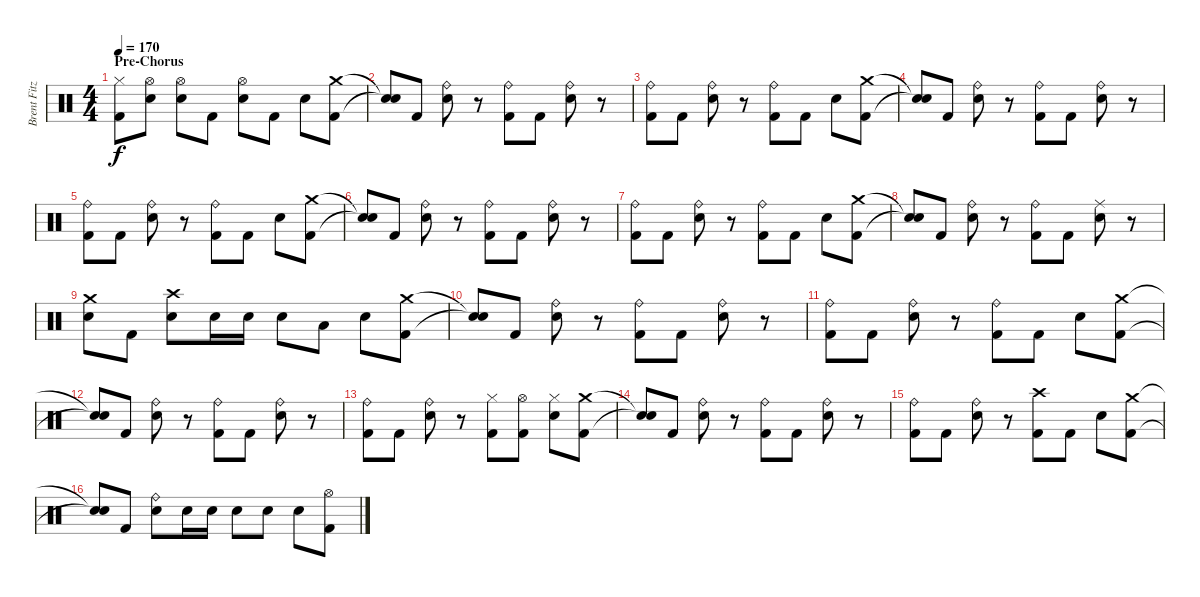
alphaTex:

\track ("Brent Fitz" "Brent Fitz") {instrument percussion}
\staff {score}
\articulation defaults
\ts (4 4)
\section ("" "Pre-Chorus")
\tempo 170
\clef neutral
\ks c
("Hi-Hat (closed)" "Kick (hit) 2").8{dy f} ("Hi-Hat (open)" "Electric Snare (hit)").8 ("Hi-Hat (open)" "Electric Snare (hit)").8 "Kick (hit) 2".8 ("Hi-Hat (open)" "Electric Snare (hit)").8 "Kick (hit) 2".8 "Electric Snare (hit)".8 ("Crash medium (hit)" "Kick (hit) 2").8 |
("Snare (hit)"{t} "Snare (hit)"{t}).8 "Kick (hit) 2".8 ("Ride (bell)" "Electric Snare (hit)").8 r.8 ("Ride (bell)" "Kick (hit) 2").8 "Kick (hit) 2".8 ("Ride (bell)" "Electric Snare (hit)").8 r.8 |
("Ride (bell)" "Kick (hit) 2").8 "Kick (hit) 2".8 ("Ride (bell)" "Electric Snare (hit)").8 r.8 ("Ride (bell)" "Kick (hit) 2").8 "Kick (hit) 2".8 "Electric Snare (hit)".8 ("Crash medium (hit)" "Kick (hit) 2").8 |
("Snare (hit)"{t} "Snare (hit)"{t}).8 "Kick (hit) 2".8 ("Ride (bell)" "Electric Snare (hit)").8 r.8 ("Ride (bell)" "Kick (hit) 2").8 "Kick (hit) 2".8 ("Ride (bell)" "Electric Snare (hit)").8 r.8 |
("Ride (bell)" "Kick (hit) 2").8 "Kick (hit) 2".8 ("Ride (bell)" "Electric Snare (hit)").8 r.8 ("Ride (bell)" "Kick (hit) 2").8 "Kick (hit) 2".8 "Electric Snare (hit)".8 ("Crash medium (hit)" "Kick (hit) 2").8 |
("Snare (hit)"{t} "Snare (hit)"{t}).8 "Kick (hit) 2".8 ("Ride (bell)" "Electric Snare (hit)").8 r.8 ("Ride (bell)" "Kick (hit) 2").8 "Kick (hit) 2".8 ("Ride (bell)" "Electric Snare (hit)").8 r.8 |
("Ride (bell)" "Kick (hit) 2").8 "Kick (hit) 2".8 ("Ride (bell)" "Electric Snare (hit)").8 r.8 ("Ride (bell)" "Kick (hit) 2").8 "Kick (hit) 2".8 "Electric Snare (hit)".8 ("Crash medium (hit)" "Kick (hit) 2").8 |
("Snare (hit)"{t} "Snare (hit)"{t}).8 "Kick (hit) 2".8 ("Ride (bell)" "Electric Snare (hit)").8 r.8 ("Ride (bell)" "Kick (hit) 2").8 "Kick (hit) 2".8 ("Ride (middle)" "Electric Snare (hit)").8 r.8 |
("Crash medium (hit)" "Electric Snare (hit)").8 "Kick (hit) 2".8 ("Crash high (hit)" "Electric Snare (hit)").8 "Electric Snare (hit)".16 "Electric Snare (hit)".16 "Electric Snare (hit)".8 "Low Tom (hit)".8 "Electric Snare (hit)".8 ("Crash medium (hit)" "Kick (hit) 2").8 |
("Snare (hit)"{t} "Snare (hit)"{t}).8 "Kick (hit) 2".8 ("Ride (bell)" "Electric Snare (hit)").8 r.8 ("Ride (bell)" "Kick (hit) 2").8 "Kick (hit) 2".8 ("Ride (bell)" "Electric Snare (hit)").8 r.8 |
("Ride (bell)" "Kick (hit) 2").8 "Kick (hit) 2".8 ("Ride (bell)" "Electric Snare (hit)").8 r.8 ("Ride (bell)" "Kick (hit) 2").8 "Kick (hit) 2".8 "Electric Snare (hit)".8 ("Crash medium (hit)" "Kick (hit) 2").8 |
("Snare (hit)"{t} "Snare (hit)"{t}).8 "Kick (hit) 2".8 ("Ride (bell)" "Electric Snare (hit)").8 r.8 ("Ride (bell)" "Kick (hit) 2").8 "Kick (hit) 2".8 ("Ride (bell)" "Electric Snare (hit)").8 r.8 |
("Ride (bell)" "Kick (hit) 2").8 "Kick (hit) 2".8 ("Ride (bell)" "Electric Snare (hit)").8 r.8 ("Hi-Hat (closed)" "Kick (hit) 2").8 ("Hi-Hat (open)" "Kick (hit) 2").8 ("Hi-Hat (closed)" "Electric Snare (hit)").8 ("Crash medium (hit)" "Kick (hit) 2").8 |
("Snare (hit)"{t} "Snare (hit)"{t}).8 "Kick (hit) 2".8 ("Ride (bell)" "Electric Snare (hit)").8 r.8 ("Ride (bell)" "Kick (hit) 2").8 "Kick (hit) 2".8 ("Ride (bell)" "Electric Snare (hit)").8 r.8 |
("Ride (bell)" "Kick (hit) 2").8 "Kick (hit) 2".8 ("Ride (bell)" "Electric Snare (hit)").8 r.8 ("Crash high (hit)" "Kick (hit) 2").8 "Kick (hit) 2".8 "Electric Snare (hit)".8 ("Crash medium (hit)" "Kick (hit) 2").8 |
("Snare (hit)"{t} "Snare (hit)"{t}).8 "Kick (hit) 2".8 ("Ride (bell)" "Electric Snare (hit)").8 "Electric Snare (hit)".16 "Electric Snare (hit)".16 "Electric Snare (hit)".8 "Electric Snare (hit)".8 "Electric Snare (hit)".8 ("Hi-Hat (open)" "Kick (hit) 2").8
